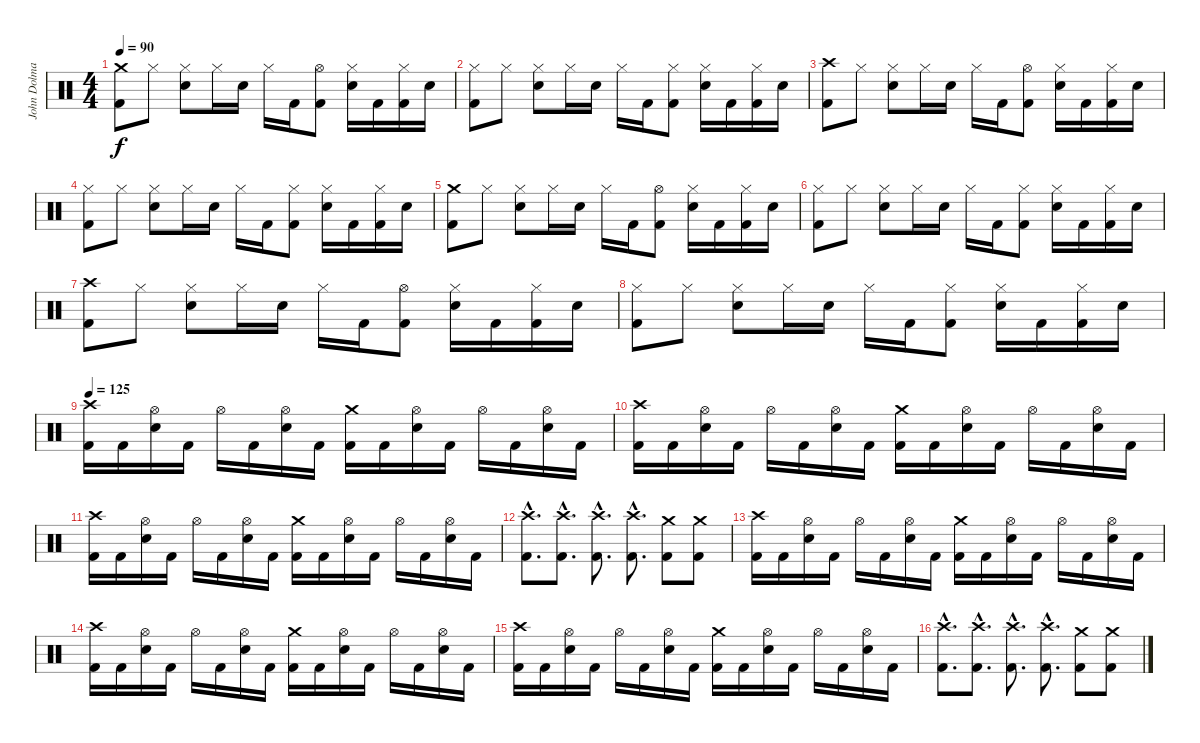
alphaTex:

\track ("John Dolmayan" "John Dolma") {instrument percussion}
\staff {score}
\articulation defaults
\ts (4 4)
\tempo 90
\clef neutral
\ks c
("Crash medium (hit)" "Kick (hit) 2").8{dy f} "Hi-Hat (closed)".8 ("Hi-Hat (closed)" "Electric Snare (hit)").8 "Hi-Hat (closed)".16 "Electric Snare (hit)".16 "Hi-Hat (closed)".16 "Kick (hit) 2".16 ("Hi-Hat (open)" "Kick (hit) 2").8 ("Hi-Hat (closed)" "Electric Snare (hit)").16 "Kick (hit) 2".16 ("Hi-Hat (closed)" "Kick (hit) 2").16 "Electric Snare (hit)".16 |
("Hi-Hat (closed)" "Kick (hit) 2").8 "Hi-Hat (closed)".8 ("Hi-Hat (closed)" "Electric Snare (hit)").8 "Hi-Hat (closed)".16 "Electric Snare (hit)".16 "Hi-Hat (closed)".16 "Kick (hit) 2".16 ("Hi-Hat (closed)" "Kick (hit) 2").8 ("Hi-Hat (closed)" "Electric Snare (hit)").16 "Kick (hit) 2".16 ("Hi-Hat (closed)" "Kick (hit) 2").16 "Electric Snare (hit)".16 |
("Crash high (hit)" "Kick (hit) 2").8 "Hi-Hat (closed)".8 ("Hi-Hat (closed)" "Electric Snare (hit)").8 "Hi-Hat (closed)".16 "Electric Snare (hit)".16 "Hi-Hat (closed)".16 "Kick (hit) 2".16 ("Hi-Hat (open)" "Kick (hit) 2").8 ("Hi-Hat (closed)" "Electric Snare (hit)").16 "Kick (hit) 2".16 ("Hi-Hat (closed)" "Kick (hit) 2").16 "Electric Snare (hit)".16 |
("Hi-Hat (closed)" "Kick (hit) 2").8 "Hi-Hat (closed)".8 ("Hi-Hat (closed)" "Electric Snare (hit)").8 "Hi-Hat (closed)".16 "Electric Snare (hit)".16 "Hi-Hat (closed)".16 "Kick (hit) 2".16 ("Hi-Hat (closed)" "Kick (hit) 2").8 ("Hi-Hat (closed)" "Electric Snare (hit)").16 "Kick (hit) 2".16 ("Hi-Hat (closed)" "Kick (hit) 2").16 "Electric Snare (hit)".16 |
("Crash medium (hit)" "Kick (hit) 2").8 "Hi-Hat (closed)".8 ("Hi-Hat (closed)" "Electric Snare (hit)").8 "Hi-Hat (closed)".16 "Electric Snare (hit)".16 "Hi-Hat (closed)".16 "Kick (hit) 2".16 ("Hi-Hat (open)" "Kick (hit) 2").8 ("Hi-Hat (closed)" "Electric Snare (hit)").16 "Kick (hit) 2".16 ("Hi-Hat (closed)" "Kick (hit) 2").16 "Electric Snare (hit)".16 |
("Hi-Hat (closed)" "Kick (hit) 2").8 "Hi-Hat (closed)".8 ("Hi-Hat (closed)" "Electric Snare (hit)").8 "Hi-Hat (closed)".16 "Electric Snare (hit)".16 "Hi-Hat (closed)".16 "Kick (hit) 2".16 ("Hi-Hat (closed)" "Kick (hit) 2").8 ("Hi-Hat (closed)" "Electric Snare (hit)").16 "Kick (hit) 2".16 ("Hi-Hat (closed)" "Kick (hit) 2").16 "Electric Snare (hit)".16 |
("Crash high (hit)" "Kick (hit) 2").8 "Hi-Hat (closed)".8 ("Hi-Hat (closed)" "Electric Snare (hit)").8 "Hi-Hat (closed)".16 "Electric Snare (hit)".16 "Hi-Hat (closed)".16 "Kick (hit) 2".16 ("Hi-Hat (open)" "Kick (hit) 2").8 ("Hi-Hat (closed)" "Electric Snare (hit)").16 "Kick (hit) 2".16 ("Hi-Hat (closed)" "Kick (hit) 2").16 "Electric Snare (hit)".16 |
("Hi-Hat (closed)" "Kick (hit) 2").8 "Hi-Hat (closed)".8 ("Hi-Hat (closed)" "Electric Snare (hit)").8 "Hi-Hat (closed)".16 "Electric Snare (hit)".16 "Hi-Hat (closed)".16 "Kick (hit) 2".16 ("Hi-Hat (closed)" "Kick (hit) 2").8 ("Hi-Hat (closed)" "Electric Snare (hit)").16 "Kick (hit) 2".16 ("Hi-Hat (closed)" "Kick (hit) 2").16 "Electric Snare (hit)".16 |
\tempo 125
("Crash high (hit)" "Kick (hit) 2").16 "Kick (hit) 2".16 ("Hi-Hat (open)" "Electric Snare (hit)").16 "Kick (hit) 2".16 "Hi-Hat (open)".16 "Kick (hit) 2".16 ("Hi-Hat (open)" "Electric Snare (hit)").16 "Kick (hit) 2".16 ("Crash medium (hit)" "Kick (hit) 2").16 "Kick (hit) 2".16 ("Hi-Hat (open)" "Electric Snare (hit)").16 "Kick (hit) 2".16 "Hi-Hat (open)".16 "Kick (hit) 2".16 ("Hi-Hat (open)" "Electric Snare (hit)").16 "Kick (hit) 2".16 |
("Crash high (hit)" "Kick (hit) 2").16 "Kick (hit) 2".16 ("Hi-Hat (open)" "Electric Snare (hit)").16 "Kick (hit) 2".16 "Hi-Hat (open)".16 "Kick (hit) 2".16 ("Hi-Hat (open)" "Electric Snare (hit)").16 "Kick (hit) 2".16 ("Crash medium (hit)" "Kick (hit) 2").16 "Kick (hit) 2".16 ("Hi-Hat (open)" "Electric Snare (hit)").16 "Kick (hit) 2".16 "Hi-Hat (open)".16 "Kick (hit) 2".16 ("Hi-Hat (open)" "Electric Snare (hit)").16 "Kick (hit) 2".16 |
("Crash high (hit)" "Kick (hit) 2").16 "Kick (hit) 2".16 ("Hi-Hat (open)" "Electric Snare (hit)").16 "Kick (hit) 2".16 "Hi-Hat (open)".16 "Kick (hit) 2".16 ("Hi-Hat (open)" "Electric Snare (hit)").16 "Kick (hit) 2".16 ("Crash medium (hit)" "Kick (hit) 2").16 "Kick (hit) 2".16 ("Hi-Hat (open)" "Electric Snare (hit)").16 "Kick (hit) 2".16 "Hi-Hat (open)".16 "Kick (hit) 2".16 ("Hi-Hat (open)" "Electric Snare (hit)").16 "Kick (hit) 2".16 |
("Crash high (hit)"{hac} "Kick (hit) 2"{hac}).8{d} ("Crash high (hit)"{hac} "Kick (hit) 2"{hac}).8{d} ("Crash high (hit)"{hac} "Kick (hit) 2"{hac}).8{d} ("Crash high (hit)"{hac} "Kick (hit) 2"{hac}).8{d} ("Crash medium (hit)" "Kick (hit) 2").8 ("Crash medium (hit)" "Kick (hit) 2").8 |
("Crash high (hit)" "Kick (hit) 2").16 "Kick (hit) 2".16 ("Hi-Hat (open)" "Electric Snare (hit)").16 "Kick (hit) 2".16 "Hi-Hat (open)".16 "Kick (hit) 2".16 ("Hi-Hat (open)" "Electric Snare (hit)").16 "Kick (hit) 2".16 ("Crash medium (hit)" "Kick (hit) 2").16 "Kick (hit) 2".16 ("Hi-Hat (open)" "Electric Snare (hit)").16 "Kick (hit) 2".16 "Hi-Hat (open)".16 "Kick (hit) 2".16 ("Hi-Hat (open)" "Electric Snare (hit)").16 "Kick (hit) 2".16 |
("Crash high (hit)" "Kick (hit) 2").16 "Kick (hit) 2".16 ("Hi-Hat (open)" "Electric Snare (hit)").16 "Kick (hit) 2".16 "Hi-Hat (open)".16 "Kick (hit) 2".16 ("Hi-Hat (open)" "Electric Snare (hit)").16 "Kick (hit) 2".16 ("Crash medium (hit)" "Kick (hit) 2").16 "Kick (hit) 2".16 ("Hi-Hat (open)" "Electric Snare (hit)").16 "Kick (hit) 2".16 "Hi-Hat (open)".16 "Kick (hit) 2".16 ("Hi-Hat (open)" "Electric Snare (hit)").16 "Kick (hit) 2".16 |
("Crash high (hit)" "Kick (hit) 2").16 "Kick (hit) 2".16 ("Hi-Hat (open)" "Electric Snare (hit)").16 "Kick (hit) 2".16 "Hi-Hat (open)".16 "Kick (hit) 2".16 ("Hi-Hat (open)" "Electric Snare (hit)").16 "Kick (hit) 2".16 ("Crash medium (hit)" "Kick (hit) 2").16 "Kick (hit) 2".16 ("Hi-Hat (open)" "Electric Snare (hit)").16 "Kick (hit) 2".16 "Hi-Hat (open)".16 "Kick (hit) 2".16 ("Hi-Hat (open)" "Electric Snare (hit)").16 "Kick (hit) 2".16 |
("Crash high (hit)"{hac} "Kick (hit) 2"{hac}).8{d} ("Crash high (hit)"{hac} "Kick (hit) 2"{hac}).8{d} ("Crash high (hit)"{hac} "Kick (hit) 2"{hac}).8{d} ("Crash high (hit)"{hac} "Kick (hit) 2"{hac}).8{d} ("Crash medium (hit)" "Kick (hit) 2").8 ("Crash medium (hit)" "Kick (hit) 2").8
